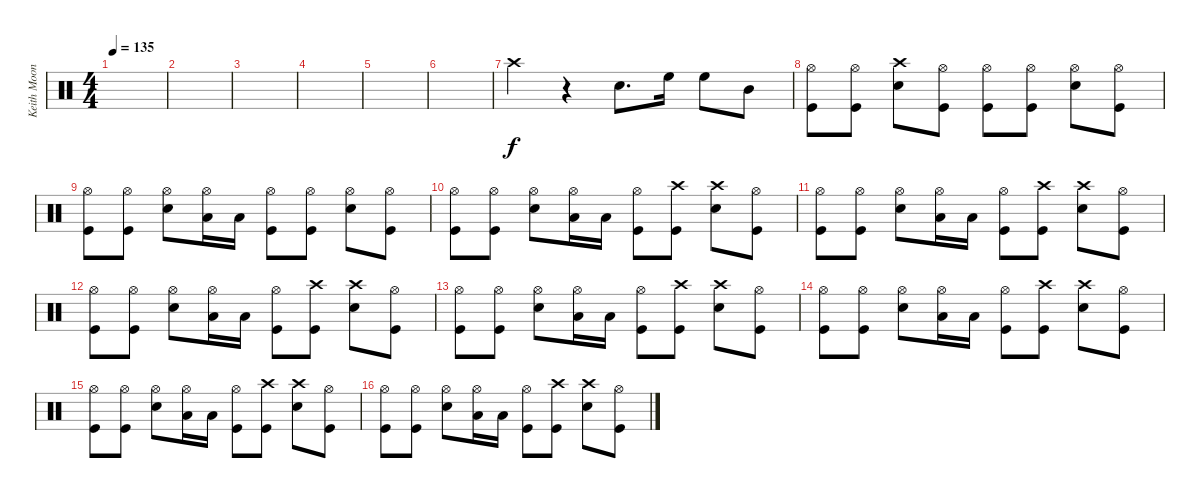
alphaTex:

\track ("Keith Moon" "Keith Moon") {instrument percussion}
\staff {score}
\articulation defaults
\ts (4 4)
\tempo 135
\clef neutral
\ks c
|
|
|
|
|
|
"Crash high (hit)".4 r.4 "Snare (hit) 2".8{d} "High Floor Tom (hit)".16 "High Floor Tom (hit)".8 "Mid Tom (hit)".8 |
("Hi-Hat (open)" "Kick (hit)").8 ("Hi-Hat (open)" "Kick (hit)").8 ("Crash high (hit)" "Snare (hit) 2").8 ("Hi-Hat (open)" "Kick (hit)").8 ("Hi-Hat (open)" "Kick (hit)").8 ("Hi-Hat (open)" "Kick (hit)").8 ("Hi-Hat (open)" "Snare (hit) 2").8 ("Hi-Hat (open)" "Kick (hit)").8 |
("Hi-Hat (open)" "Kick (hit)").8 ("Hi-Hat (open)" "Kick (hit)").8 ("Hi-Hat (open)" "Snare (hit) 2").8 ("Hi-Hat (open)" "Low Tom (hit)").16 "Low Tom (hit)".16 ("Hi-Hat (open)" "Kick (hit)").8 ("Hi-Hat (open)" "Kick (hit)").8 ("Hi-Hat (open)" "Snare (hit) 2").8 ("Hi-Hat (open)" "Kick (hit)").8 |
("Hi-Hat (open)" "Kick (hit)").8 ("Hi-Hat (open)" "Kick (hit)").8 ("Hi-Hat (open)" "Snare (hit) 2").8 ("Hi-Hat (open)" "Low Tom (hit)").16 "Low Tom (hit)".16 ("Hi-Hat (open)" "Kick (hit)").8 ("Crash high (hit)" "Kick (hit)").8 ("Crash high (hit)" "Snare (hit) 2").8 ("Hi-Hat (open)" "Kick (hit)").8 |
("Hi-Hat (open)" "Kick (hit)").8 ("Hi-Hat (open)" "Kick (hit)").8 ("Hi-Hat (open)" "Snare (hit) 2").8 ("Hi-Hat (open)" "Low Tom (hit)").16 "Low Tom (hit)".16 ("Hi-Hat (open)" "Kick (hit)").8 ("Crash high (hit)" "Kick (hit)").8 ("Crash high (hit)" "Snare (hit) 2").8 ("Hi-Hat (open)" "Kick (hit)").8 |
("Hi-Hat (open)" "Kick (hit)").8 ("Hi-Hat (open)" "Kick (hit)").8 ("Hi-Hat (open)" "Snare (hit) 2").8 ("Hi-Hat (open)" "Low Tom (hit)").16 "Low Tom (hit)".16 ("Hi-Hat (open)" "Kick (hit)").8 ("Crash high (hit)" "Kick (hit)").8 ("Crash high (hit)" "Snare (hit) 2").8 ("Hi-Hat (open)" "Kick (hit)").8 |
("Hi-Hat (open)" "Kick (hit)").8 ("Hi-Hat (open)" "Kick (hit)").8 ("Hi-Hat (open)" "Snare (hit) 2").8 ("Hi-Hat (open)" "Low Tom (hit)").16 "Low Tom (hit)".16 ("Hi-Hat (open)" "Kick (hit)").8 ("Crash high (hit)" "Kick (hit)").8 ("Crash high (hit)" "Snare (hit) 2").8 ("Hi-Hat (open)" "Kick (hit)").8 |
("Hi-Hat (open)" "Kick (hit)").8 ("Hi-Hat (open)" "Kick (hit)").8 ("Hi-Hat (open)" "Snare (hit) 2").8 ("Hi-Hat (open)" "Low Tom (hit)").16 "Low Tom (hit)".16 ("Hi-Hat (open)" "Kick (hit)").8 ("Crash high (hit)" "Kick (hit)").8 ("Crash high (hit)" "Snare (hit) 2").8 ("Hi-Hat (open)" "Kick (hit)").8 |
("Hi-Hat (open)" "Kick (hit)").8 ("Hi-Hat (open)" "Kick (hit)").8 ("Hi-Hat (open)" "Snare (hit) 2").8 ("Hi-Hat (open)" "Low Tom (hit)").16 "Low Tom (hit)".16 ("Hi-Hat (open)" "Kick (hit)").8 ("Crash high (hit)" "Kick (hit)").8 ("Crash high (hit)" "Snare (hit) 2").8 ("Hi-Hat (open)" "Kick (hit)").8 |
("Hi-Hat (open)" "Kick (hit)").8 ("Hi-Hat (open)" "Kick (hit)").8 ("Hi-Hat (open)" "Snare (hit) 2").8 ("Hi-Hat (open)" "Low Tom (hit)").16 "Low Tom (hit)".16 ("Hi-Hat (open)" "Kick (hit)").8 ("Crash high (hit)" "Kick (hit)").8 ("Crash high (hit)" "Snare (hit) 2").8 ("Hi-Hat (open)" "Kick (hit)").8
